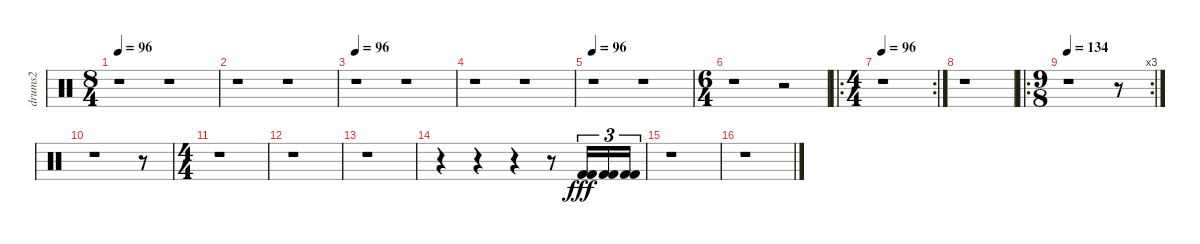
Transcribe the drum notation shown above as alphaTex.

\track ("drums2" "drums2") {instrument percussion}
\staff {score}
\articulation defaults
\ts (8 4)
\tempo 96
\clef neutral
\ks c
r.1{dy fff} r.1 |
r.1 r.1 |
\tempo 96
r.1 r.1 |
r.1 r.1 |
\tempo 96
r.1 r.1 |
\ts (6 4)
r.1 r.2 |
\ro
\rc 2
\ts (4 4)
\tempo 96
r.1 |
r.1 |
\ro
\rc 3
\ts (9 8)
\tempo 134
r.1 r.8 |
r.1 r.8 |
\ts (4 4)
r.1 |
r.1 |
r.1 |
r.4 r.4 r.4 r.8 ("Kick (hit) 2" "Kick (hit) 2").16{tu (3 2)} ("Kick (hit) 2" "Kick (hit) 2").16{tu (3 2)} ("Kick (hit) 2" "Kick (hit) 2").16{tu (3 2)} |
r.1 |
r.1
